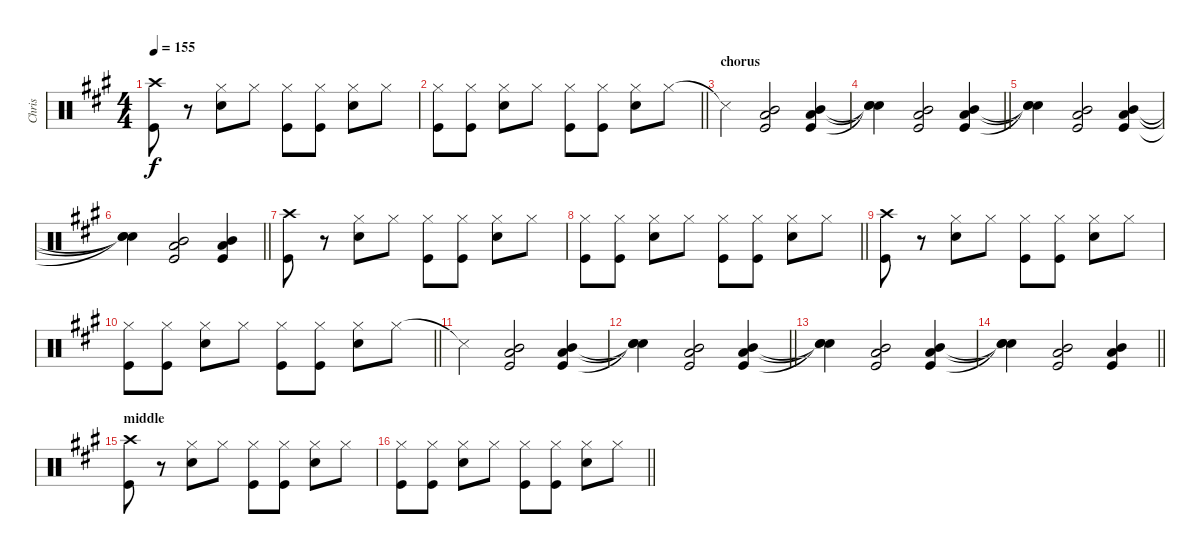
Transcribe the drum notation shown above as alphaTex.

\track ("Chris" "Chris") {instrument percussion}
\staff {score}
\articulation defaults
\ts (4 4)
\tempo 155
\clef neutral
\ks a
("Crash high (hit)" "Kick (hit)").8{dy f} r.8 ("Hi-Hat (closed)" "Snare (hit) 2").8 "Hi-Hat (closed)".8 ("Hi-Hat (closed)" "Kick (hit)").8 ("Hi-Hat (closed)" "Kick (hit)").8 ("Hi-Hat (closed)" "Snare (hit) 2").8 "Hi-Hat (closed)".8 |
\barLineRight lightlight
("Hi-Hat (closed)" "Kick (hit)").8 ("Hi-Hat (closed)" "Kick (hit)").8 ("Hi-Hat (closed)" "Snare (hit) 2").8 "Hi-Hat (closed)".8 ("Hi-Hat (closed)" "Kick (hit)").8 ("Hi-Hat (closed)" "Kick (hit)").8 ("Hi-Hat (closed)" "Snare (hit) 2").8 "Hi-Hat (closed)".8 |
\section ("" "chorus")
"Snare (side stick) 3"{t}.4 ("Mid Tom (hit)" "Kick (hit)" "Low Floor Tom (hit)").2 ("Mid Tom (hit)" "Kick (hit)" "Low Floor Tom (hit)").4 |
\barLineRight lightlight
("Snare (hit)"{t} "Snare (hit)"{t} "Snare (hit)"{t}).4 ("Mid Tom (hit)" "Kick (hit)" "Low Floor Tom (hit)").2 ("Mid Tom (hit)" "Kick (hit)" "Low Floor Tom (hit)").4 |
("Snare (hit)"{t} "Snare (hit)"{t} "Snare (hit)"{t}).4 ("Mid Tom (hit)" "Kick (hit)" "Low Floor Tom (hit)").2 ("Mid Tom (hit)" "Kick (hit)" "Low Floor Tom (hit)").4 |
\barLineRight lightlight
("Snare (hit)"{t} "Snare (hit)"{t} "Snare (hit)"{t}).4 ("Mid Tom (hit)" "Kick (hit)" "Low Floor Tom (hit)").2 ("Mid Tom (hit)" "Kick (hit)" "Low Floor Tom (hit)").4 |
("Crash high (hit)" "Kick (hit)").8 r.8 ("Hi-Hat (closed)" "Snare (hit) 2").8 "Hi-Hat (closed)".8 ("Hi-Hat (closed)" "Kick (hit)").8 ("Hi-Hat (closed)" "Kick (hit)").8 ("Hi-Hat (closed)" "Snare (hit) 2").8 "Hi-Hat (closed)".8 |
\barLineRight lightlight
("Hi-Hat (closed)" "Kick (hit)").8 ("Hi-Hat (closed)" "Kick (hit)").8 ("Hi-Hat (closed)" "Snare (hit) 2").8 "Hi-Hat (closed)".8 ("Hi-Hat (closed)" "Kick (hit)").8 ("Hi-Hat (closed)" "Kick (hit)").8 ("Hi-Hat (closed)" "Snare (hit) 2").8 "Hi-Hat (closed)".8 |
("Crash high (hit)" "Kick (hit)").8 r.8 ("Hi-Hat (closed)" "Snare (hit) 2").8 "Hi-Hat (closed)".8 ("Hi-Hat (closed)" "Kick (hit)").8 ("Hi-Hat (closed)" "Kick (hit)").8 ("Hi-Hat (closed)" "Snare (hit) 2").8 "Hi-Hat (closed)".8 |
\barLineRight lightlight
("Hi-Hat (closed)" "Kick (hit)").8 ("Hi-Hat (closed)" "Kick (hit)").8 ("Hi-Hat (closed)" "Snare (hit) 2").8 "Hi-Hat (closed)".8 ("Hi-Hat (closed)" "Kick (hit)").8 ("Hi-Hat (closed)" "Kick (hit)").8 ("Hi-Hat (closed)" "Snare (hit) 2").8 "Hi-Hat (closed)".8 |
"Snare (side stick) 3"{t}.4 ("Mid Tom (hit)" "Kick (hit)" "Low Floor Tom (hit)").2 ("Mid Tom (hit)" "Kick (hit)" "Low Floor Tom (hit)").4 |
\barLineRight lightlight
("Snare (hit)"{t} "Snare (hit)"{t} "Snare (hit)"{t}).4 ("Mid Tom (hit)" "Kick (hit)" "Low Floor Tom (hit)").2 ("Mid Tom (hit)" "Kick (hit)" "Low Floor Tom (hit)").4 |
("Snare (hit)"{t} "Snare (hit)"{t} "Snare (hit)"{t}).4 ("Mid Tom (hit)" "Kick (hit)" "Low Floor Tom (hit)").2 ("Mid Tom (hit)" "Kick (hit)" "Low Floor Tom (hit)").4 |
\barLineRight lightlight
("Snare (hit)"{t} "Snare (hit)"{t} "Snare (hit)"{t}).4 ("Mid Tom (hit)" "Kick (hit)" "Low Floor Tom (hit)").2 ("Mid Tom (hit)" "Kick (hit)" "Low Floor Tom (hit)").4 |
\section ("" "middle")
("Crash high (hit)" "Kick (hit)").8 r.8 ("Hi-Hat (closed)" "Snare (hit) 2").8 "Hi-Hat (closed)".8 ("Hi-Hat (closed)" "Kick (hit)").8 ("Hi-Hat (closed)" "Kick (hit)").8 ("Hi-Hat (closed)" "Snare (hit) 2").8 "Hi-Hat (closed)".8 |
\barLineRight lightlight
("Hi-Hat (closed)" "Kick (hit)").8 ("Hi-Hat (closed)" "Kick (hit)").8 ("Hi-Hat (closed)" "Snare (hit) 2").8 "Hi-Hat (closed)".8 ("Hi-Hat (closed)" "Kick (hit)").8 ("Hi-Hat (closed)" "Kick (hit)").8 ("Hi-Hat (closed)" "Snare (hit) 2").8 "Hi-Hat (closed)".8
